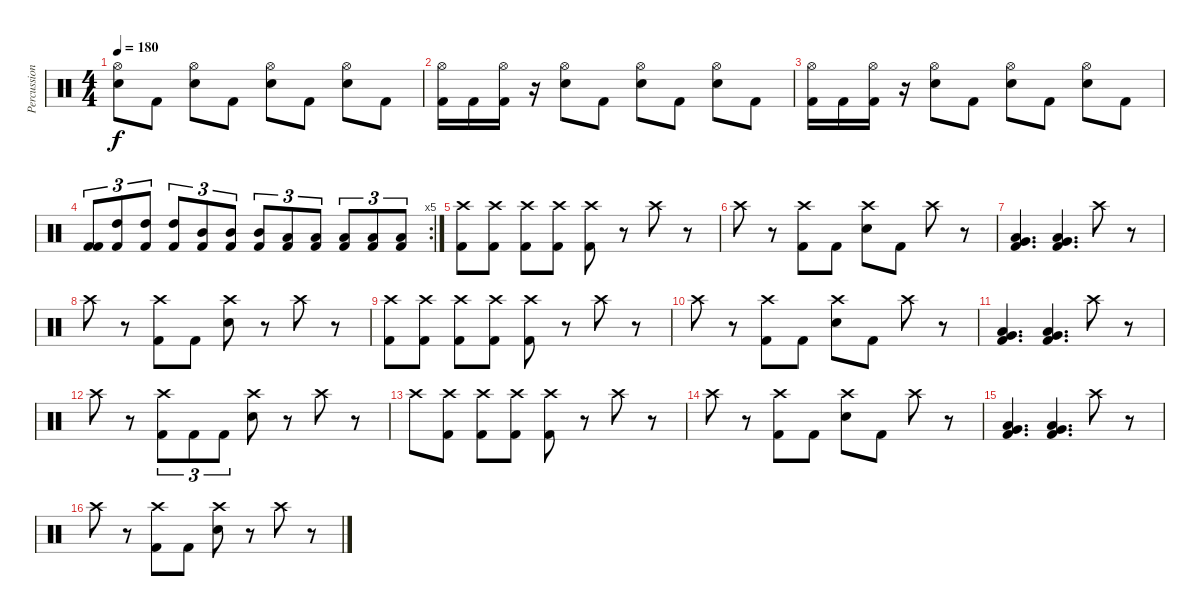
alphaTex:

\track ("Percussion" "Percussion") {instrument percussion}
\staff {score}
\articulation defaults
\ts (4 4)
\tempo 180
\clef neutral
\ks c
("Hi-Hat (open)" "Snare (hit) 2").8{dy f} "Kick (hit) 2".8 ("Hi-Hat (open)" "Snare (hit) 2").8 "Kick (hit) 2".8 ("Hi-Hat (open)" "Snare (hit) 2").8 "Kick (hit) 2".8 ("Hi-Hat (open)" "Snare (hit) 2").8 "Kick (hit) 2".8 |
("Hi-Hat (open)" "Kick (hit) 2").16 "Kick (hit) 2".16 ("Hi-Hat (open)" "Kick (hit) 2").16 r.16 ("Hi-Hat (open)" "Snare (hit) 2").8 "Kick (hit) 2".8 ("Hi-Hat (open)" "Snare (hit) 2").8 "Kick (hit) 2".8 ("Hi-Hat (open)" "Snare (hit) 2").8 "Kick (hit) 2".8 |
("Hi-Hat (open)" "Kick (hit) 2").16 "Kick (hit) 2".16 ("Hi-Hat (open)" "Kick (hit) 2").16 r.16 ("Hi-Hat (open)" "Snare (hit) 2").8 "Kick (hit) 2".8 ("Hi-Hat (open)" "Snare (hit) 2").8 "Kick (hit) 2".8 ("Hi-Hat (open)" "Snare (hit) 2").8 "Kick (hit) 2".8 |
\rc 5
("Kick (hit) 2" "Kick (hit) 2").8{tu (3 2)} ("High Tom (hit)" "Kick (hit) 2").8{tu (3 2)} ("High Tom (hit)" "Kick (hit) 2").8{tu (3 2)} ("High Tom (hit)" "Kick (hit) 2").8{tu (3 2)} ("Mid Tom (hit)" "Kick (hit) 2").8{tu (3 2)} ("Mid Tom (hit)" "Kick (hit) 2").8{tu (3 2)} ("Mid Tom (hit)" "Kick (hit) 2").8{tu (3 2)} ("Low Tom (hit)" "Kick (hit) 2").8{tu (3 2)} ("Low Tom (hit)" "Kick (hit) 2").8{tu (3 2)} ("Low Tom (hit)" "Kick (hit) 2").8{tu (3 2)} ("Low Floor Tom (hit)" "Kick (hit) 2").8{tu (3 2)} ("Low Floor Tom (hit)" "Kick (hit) 2").8{tu (3 2)} |
("Crash high (hit)" "Kick (hit) 2").8 ("Crash high (hit)" "Kick (hit) 2").8 ("Crash high (hit)" "Kick (hit) 2").8 ("Crash high (hit)" "Kick (hit) 2").8 ("Crash high (hit)" "Kick (hit) 2").8 r.8 "Crash high (hit)".8 r.8 |
"Crash high (hit)".8 r.8 ("Crash high (hit)" "Kick (hit) 2").8 "Kick (hit) 2".8 ("Crash high (hit)" "Snare (hit) 2").8 "Kick (hit) 2".8 "Crash high (hit)".8 r.8 |
("Very Low Tom (hit)" "Low Floor Tom (hit)" "Kick (hit) 2").4{d} ("Very Low Tom (hit)" "Low Floor Tom (hit)" "Kick (hit) 2").4{d} "Crash high (hit)".8 r.8 |
"Crash high (hit)".8 r.8 ("Crash high (hit)" "Kick (hit) 2").8 "Kick (hit) 2".8 ("Crash high (hit)" "Snare (hit) 2").8 r.8 "Crash high (hit)".8 r.8 |
("Crash high (hit)" "Kick (hit) 2").8 ("Crash high (hit)" "Kick (hit) 2").8 ("Crash high (hit)" "Kick (hit) 2").8 ("Crash high (hit)" "Kick (hit) 2").8 ("Crash high (hit)" "Kick (hit) 2").8 r.8 "Crash high (hit)".8 r.8 |
"Crash high (hit)".8 r.8 ("Crash high (hit)" "Kick (hit) 2").8 "Kick (hit) 2".8 ("Crash high (hit)" "Snare (hit) 2").8 "Kick (hit) 2".8 "Crash high (hit)".8 r.8 |
("Very Low Tom (hit)" "Low Floor Tom (hit)" "Kick (hit) 2").4{d} ("Very Low Tom (hit)" "Low Floor Tom (hit)" "Kick (hit) 2").4{d} "Crash high (hit)".8 r.8 |
"Crash high (hit)".8 r.8 ("Crash high (hit)" "Kick (hit) 2").8{tu (3 2)} "Kick (hit) 2".8{tu (3 2)} "Kick (hit) 2".8{tu (3 2)} ("Crash high (hit)" "Snare (hit) 2").8 r.8 "Crash high (hit)".8 r.8 |
"Crash high (hit)".8 ("Crash high (hit)" "Kick (hit) 2").8 ("Crash high (hit)" "Kick (hit) 2").8 ("Crash high (hit)" "Kick (hit) 2").8 ("Crash high (hit)" "Kick (hit) 2").8 r.8 "Crash high (hit)".8 r.8 |
"Crash high (hit)".8 r.8 ("Crash high (hit)" "Kick (hit) 2").8 "Kick (hit) 2".8 ("Crash high (hit)" "Snare (hit) 2").8 "Kick (hit) 2".8 "Crash high (hit)".8 r.8 |
("Very Low Tom (hit)" "Low Floor Tom (hit)" "Kick (hit) 2").4{d} ("Very Low Tom (hit)" "Low Floor Tom (hit)" "Kick (hit) 2").4{d} "Crash high (hit)".8 r.8 |
"Crash high (hit)".8 r.8 ("Crash high (hit)" "Kick (hit) 2").8 "Kick (hit) 2".8 ("Crash high (hit)" "Snare (hit) 2").8 r.8 "Crash high (hit)".8 r.8
